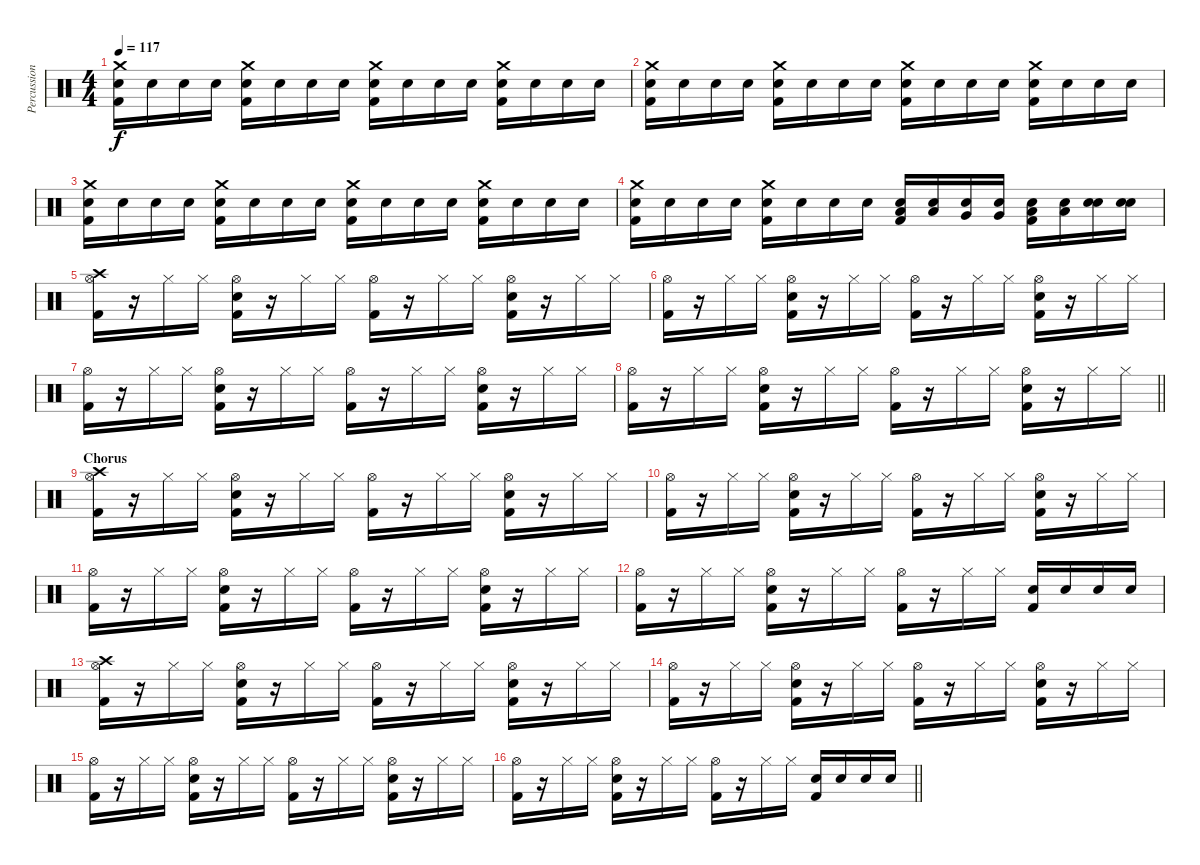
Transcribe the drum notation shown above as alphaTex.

\track ("Percussion" "Percussion") {instrument percussion}
\staff {score}
\articulation defaults
\ts (4 4)
\tempo 117
\clef neutral
\ks c
("Crash medium (hit)" "Snare (hit) 2" "Kick (hit) 2").16{dy f} "Snare (hit) 2".16 "Snare (hit) 2".16 "Snare (hit) 2".16 ("Crash medium (hit)" "Snare (hit) 2" "Kick (hit) 2").16 "Snare (hit) 2".16 "Snare (hit) 2".16 "Snare (hit) 2".16 ("Crash medium (hit)" "Snare (hit) 2" "Kick (hit) 2").16 "Snare (hit) 2".16 "Snare (hit) 2".16 "Snare (hit) 2".16 ("Crash medium (hit)" "Snare (hit) 2" "Kick (hit) 2").16 "Snare (hit) 2".16 "Snare (hit) 2".16 "Snare (hit) 2".16 |
("Crash medium (hit)" "Snare (hit) 2" "Kick (hit) 2").16 "Snare (hit) 2".16 "Snare (hit) 2".16 "Snare (hit) 2".16 ("Crash medium (hit)" "Snare (hit) 2" "Kick (hit) 2").16 "Snare (hit) 2".16 "Snare (hit) 2".16 "Snare (hit) 2".16 ("Crash medium (hit)" "Snare (hit) 2" "Kick (hit) 2").16 "Snare (hit) 2".16 "Snare (hit) 2".16 "Snare (hit) 2".16 ("Crash medium (hit)" "Snare (hit) 2" "Kick (hit) 2").16 "Snare (hit) 2".16 "Snare (hit) 2".16 "Snare (hit) 2".16 |
("Crash medium (hit)" "Snare (hit) 2" "Kick (hit) 2").16 "Snare (hit) 2".16 "Snare (hit) 2".16 "Snare (hit) 2".16 ("Crash medium (hit)" "Snare (hit) 2" "Kick (hit) 2").16 "Snare (hit) 2".16 "Snare (hit) 2".16 "Snare (hit) 2".16 ("Crash medium (hit)" "Snare (hit) 2" "Kick (hit) 2").16 "Snare (hit) 2".16 "Snare (hit) 2".16 "Snare (hit) 2".16 ("Crash medium (hit)" "Snare (hit) 2" "Kick (hit) 2").16 "Snare (hit) 2".16 "Snare (hit) 2".16 "Snare (hit) 2".16 |
("Crash medium (hit)" "Snare (hit) 2" "Kick (hit) 2").16 "Snare (hit) 2".16 "Snare (hit) 2".16 "Snare (hit) 2".16 ("Crash medium (hit)" "Snare (hit) 2" "Kick (hit) 2").16 "Snare (hit) 2".16 "Snare (hit) 2".16 "Snare (hit) 2".16 ("Snare (hit) 2" "Low Floor Tom (hit)" "Kick (hit) 2").16 ("Snare (hit) 2" "Low Floor Tom (hit)").16 ("Snare (hit) 2" "Very Low Tom (hit)").16 ("Snare (hit) 2" "Very Low Tom (hit)").16 ("Snare (hit) 2" "Low Tom (hit)" "Kick (hit) 2").16 ("Snare (hit) 2" "Low Tom (hit)").16 ("Snare (hit) 2" "Snare (hit) 2").16 ("Snare (hit) 2" "Snare (hit) 2").16 |
("Crash high (hit)" "Hi-Hat (open)" "Kick (hit) 2").16 r.16 "Hi-Hat (closed)".16 "Hi-Hat (closed)".16 ("Hi-Hat (open)" "Snare (hit) 2" "Kick (hit) 2").16 r.16 "Hi-Hat (closed)".16 "Hi-Hat (closed)".16 ("Hi-Hat (open)" "Kick (hit) 2").16 r.16 "Hi-Hat (closed)".16 "Hi-Hat (closed)".16 ("Hi-Hat (open)" "Snare (hit) 2" "Kick (hit) 2").16 r.16 "Hi-Hat (closed)".16 "Hi-Hat (closed)".16 |
("Hi-Hat (open)" "Kick (hit) 2").16 r.16 "Hi-Hat (closed)".16 "Hi-Hat (closed)".16 ("Hi-Hat (open)" "Snare (hit) 2" "Kick (hit) 2").16 r.16 "Hi-Hat (closed)".16 "Hi-Hat (closed)".16 ("Hi-Hat (open)" "Kick (hit) 2").16 r.16 "Hi-Hat (closed)".16 "Hi-Hat (closed)".16 ("Hi-Hat (open)" "Snare (hit) 2" "Kick (hit) 2").16 r.16 "Hi-Hat (closed)".16 "Hi-Hat (closed)".16 |
("Hi-Hat (open)" "Kick (hit) 2").16 r.16 "Hi-Hat (closed)".16 "Hi-Hat (closed)".16 ("Hi-Hat (open)" "Snare (hit) 2" "Kick (hit) 2").16 r.16 "Hi-Hat (closed)".16 "Hi-Hat (closed)".16 ("Hi-Hat (open)" "Kick (hit) 2").16 r.16 "Hi-Hat (closed)".16 "Hi-Hat (closed)".16 ("Hi-Hat (open)" "Snare (hit) 2" "Kick (hit) 2").16 r.16 "Hi-Hat (closed)".16 "Hi-Hat (closed)".16 |
\barLineRight lightlight
("Hi-Hat (open)" "Kick (hit) 2").16 r.16 "Hi-Hat (closed)".16 "Hi-Hat (closed)".16 ("Hi-Hat (open)" "Snare (hit) 2" "Kick (hit) 2").16 r.16 "Hi-Hat (closed)".16 "Hi-Hat (closed)".16 ("Hi-Hat (open)" "Kick (hit) 2").16 r.16 "Hi-Hat (closed)".16 "Hi-Hat (closed)".16 ("Hi-Hat (open)" "Snare (hit) 2" "Kick (hit) 2").16 r.16 "Hi-Hat (closed)".16 "Hi-Hat (closed)".16 |
\section ("" "Chorus")
("Crash high (hit)" "Hi-Hat (open)" "Kick (hit) 2").16 r.16 "Hi-Hat (closed)".16 "Hi-Hat (closed)".16 ("Hi-Hat (open)" "Snare (hit) 2" "Kick (hit) 2").16 r.16 "Hi-Hat (closed)".16 "Hi-Hat (closed)".16 ("Hi-Hat (open)" "Kick (hit) 2").16 r.16 "Hi-Hat (closed)".16 "Hi-Hat (closed)".16 ("Hi-Hat (open)" "Snare (hit) 2" "Kick (hit) 2").16 r.16 "Hi-Hat (closed)".16 "Hi-Hat (closed)".16 |
("Hi-Hat (open)" "Kick (hit) 2").16 r.16 "Hi-Hat (closed)".16 "Hi-Hat (closed)".16 ("Hi-Hat (open)" "Snare (hit) 2" "Kick (hit) 2").16 r.16 "Hi-Hat (closed)".16 "Hi-Hat (closed)".16 ("Hi-Hat (open)" "Kick (hit) 2").16 r.16 "Hi-Hat (closed)".16 "Hi-Hat (closed)".16 ("Hi-Hat (open)" "Snare (hit) 2" "Kick (hit) 2").16 r.16 "Hi-Hat (closed)".16 "Hi-Hat (closed)".16 |
("Hi-Hat (open)" "Kick (hit) 2").16 r.16 "Hi-Hat (closed)".16 "Hi-Hat (closed)".16 ("Hi-Hat (open)" "Snare (hit) 2" "Kick (hit) 2").16 r.16 "Hi-Hat (closed)".16 "Hi-Hat (closed)".16 ("Hi-Hat (open)" "Kick (hit) 2").16 r.16 "Hi-Hat (closed)".16 "Hi-Hat (closed)".16 ("Hi-Hat (open)" "Snare (hit) 2" "Kick (hit) 2").16 r.16 "Hi-Hat (closed)".16 "Hi-Hat (closed)".16 |
("Hi-Hat (open)" "Kick (hit) 2").16 r.16 "Hi-Hat (closed)".16 "Hi-Hat (closed)".16 ("Hi-Hat (open)" "Snare (hit) 2" "Kick (hit) 2").16 r.16 "Hi-Hat (closed)".16 "Hi-Hat (closed)".16 ("Hi-Hat (open)" "Kick (hit) 2").16 r.16 "Hi-Hat (closed)".16 "Hi-Hat (closed)".16 ("Snare (hit) 2" "Kick (hit) 2").16 "Snare (hit) 2".16 "Snare (hit) 2".16 "Snare (hit) 2".16 |
("Crash high (hit)" "Hi-Hat (open)" "Kick (hit) 2").16 r.16 "Hi-Hat (closed)".16 "Hi-Hat (closed)".16 ("Hi-Hat (open)" "Snare (hit) 2" "Kick (hit) 2").16 r.16 "Hi-Hat (closed)".16 "Hi-Hat (closed)".16 ("Hi-Hat (open)" "Kick (hit) 2").16 r.16 "Hi-Hat (closed)".16 "Hi-Hat (closed)".16 ("Hi-Hat (open)" "Snare (hit) 2" "Kick (hit) 2").16 r.16 "Hi-Hat (closed)".16 "Hi-Hat (closed)".16 |
("Hi-Hat (open)" "Kick (hit) 2").16 r.16 "Hi-Hat (closed)".16 "Hi-Hat (closed)".16 ("Hi-Hat (open)" "Snare (hit) 2" "Kick (hit) 2").16 r.16 "Hi-Hat (closed)".16 "Hi-Hat (closed)".16 ("Hi-Hat (open)" "Kick (hit) 2").16 r.16 "Hi-Hat (closed)".16 "Hi-Hat (closed)".16 ("Hi-Hat (open)" "Snare (hit) 2" "Kick (hit) 2").16 r.16 "Hi-Hat (closed)".16 "Hi-Hat (closed)".16 |
("Hi-Hat (open)" "Kick (hit) 2").16 r.16 "Hi-Hat (closed)".16 "Hi-Hat (closed)".16 ("Hi-Hat (open)" "Snare (hit) 2" "Kick (hit) 2").16 r.16 "Hi-Hat (closed)".16 "Hi-Hat (closed)".16 ("Hi-Hat (open)" "Kick (hit) 2").16 r.16 "Hi-Hat (closed)".16 "Hi-Hat (closed)".16 ("Hi-Hat (open)" "Snare (hit) 2" "Kick (hit) 2").16 r.16 "Hi-Hat (closed)".16 "Hi-Hat (closed)".16 |
\barLineRight lightlight
("Hi-Hat (open)" "Kick (hit) 2").16 r.16 "Hi-Hat (closed)".16 "Hi-Hat (closed)".16 ("Hi-Hat (open)" "Snare (hit) 2" "Kick (hit) 2").16 r.16 "Hi-Hat (closed)".16 "Hi-Hat (closed)".16 ("Hi-Hat (open)" "Kick (hit) 2").16 r.16 "Hi-Hat (closed)".16 "Hi-Hat (closed)".16 ("Snare (hit) 2" "Kick (hit) 2").16 "Snare (hit) 2".16 "Snare (hit) 2".16 "Snare (hit) 2".16
